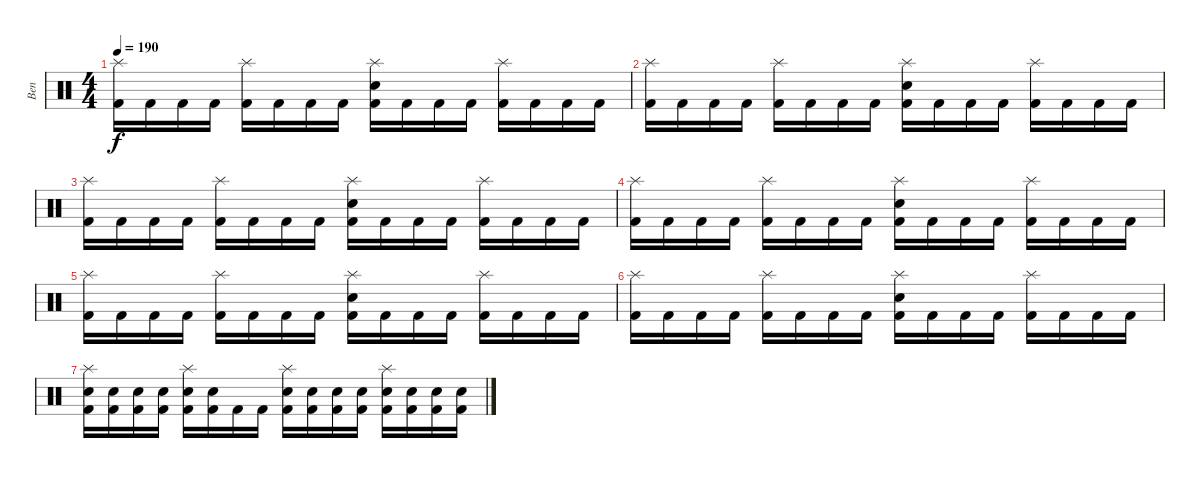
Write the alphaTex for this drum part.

\track ("Ben" "Ben") {instrument percussion}
\staff {score}
\articulation defaults
\ts (4 4)
\tempo 190
\clef neutral
\ks c
("Splash (hit)" "Kick (hit) 2").16{dy f} "Kick (hit) 2".16 "Kick (hit) 2".16 "Kick (hit) 2".16 ("Splash (hit)" "Kick (hit) 2").16 "Kick (hit) 2".16 "Kick (hit) 2".16 "Kick (hit) 2".16 ("Snare (hit) 2" "Splash (hit)" "Kick (hit) 2").16 "Kick (hit) 2".16 "Kick (hit) 2".16 "Kick (hit) 2".16 ("Splash (hit)" "Kick (hit) 2").16 "Kick (hit) 2".16 "Kick (hit) 2".16 "Kick (hit) 2".16 |
("Splash (hit)" "Kick (hit) 2").16 "Kick (hit) 2".16 "Kick (hit) 2".16 "Kick (hit) 2".16 ("Splash (hit)" "Kick (hit) 2").16 "Kick (hit) 2".16 "Kick (hit) 2".16 "Kick (hit) 2".16 ("Snare (hit) 2" "Splash (hit)" "Kick (hit) 2").16 "Kick (hit) 2".16 "Kick (hit) 2".16 "Kick (hit) 2".16 ("Splash (hit)" "Kick (hit) 2").16 "Kick (hit) 2".16 "Kick (hit) 2".16 "Kick (hit) 2".16 |
("Splash (hit)" "Kick (hit) 2").16 "Kick (hit) 2".16 "Kick (hit) 2".16 "Kick (hit) 2".16 ("Splash (hit)" "Kick (hit) 2").16 "Kick (hit) 2".16 "Kick (hit) 2".16 "Kick (hit) 2".16 ("Snare (hit) 2" "Splash (hit)" "Kick (hit) 2").16 "Kick (hit) 2".16 "Kick (hit) 2".16 "Kick (hit) 2".16 ("Splash (hit)" "Kick (hit) 2").16 "Kick (hit) 2".16 "Kick (hit) 2".16 "Kick (hit) 2".16 |
("Splash (hit)" "Kick (hit) 2").16 "Kick (hit) 2".16 "Kick (hit) 2".16 "Kick (hit) 2".16 ("Splash (hit)" "Kick (hit) 2").16 "Kick (hit) 2".16 "Kick (hit) 2".16 "Kick (hit) 2".16 ("Snare (hit) 2" "Splash (hit)" "Kick (hit) 2").16 "Kick (hit) 2".16 "Kick (hit) 2".16 "Kick (hit) 2".16 ("Splash (hit)" "Kick (hit) 2").16 "Kick (hit) 2".16 "Kick (hit) 2".16 "Kick (hit) 2".16 |
("Splash (hit)" "Kick (hit) 2").16 "Kick (hit) 2".16 "Kick (hit) 2".16 "Kick (hit) 2".16 ("Splash (hit)" "Kick (hit) 2").16 "Kick (hit) 2".16 "Kick (hit) 2".16 "Kick (hit) 2".16 ("Snare (hit) 2" "Splash (hit)" "Kick (hit) 2").16 "Kick (hit) 2".16 "Kick (hit) 2".16 "Kick (hit) 2".16 ("Splash (hit)" "Kick (hit) 2").16 "Kick (hit) 2".16 "Kick (hit) 2".16 "Kick (hit) 2".16 |
("Splash (hit)" "Kick (hit) 2").16 "Kick (hit) 2".16 "Kick (hit) 2".16 "Kick (hit) 2".16 ("Splash (hit)" "Kick (hit) 2").16 "Kick (hit) 2".16 "Kick (hit) 2".16 "Kick (hit) 2".16 ("Snare (hit) 2" "Splash (hit)" "Kick (hit) 2").16 "Kick (hit) 2".16 "Kick (hit) 2".16 "Kick (hit) 2".16 ("Splash (hit)" "Kick (hit) 2").16 "Kick (hit) 2".16 "Kick (hit) 2".16 "Kick (hit) 2".16 |
("Snare (hit) 2" "Splash (hit)" "Kick (hit) 2").16 ("Snare (hit) 2" "Kick (hit) 2").16 ("Snare (hit) 2" "Kick (hit) 2").16 ("Snare (hit) 2" "Kick (hit) 2").16 ("Snare (hit) 2" "Splash (hit)" "Kick (hit) 2").16 ("Snare (hit) 2" "Kick (hit) 2").16 "Kick (hit) 2".16 "Kick (hit) 2".16 ("Snare (hit) 2" "Splash (hit)" "Kick (hit) 2").16 ("Snare (hit) 2" "Kick (hit) 2").16 ("Snare (hit) 2" "Kick (hit) 2").16 ("Snare (hit) 2" "Kick (hit) 2").16 ("Snare (hit) 2" "Splash (hit)" "Kick (hit) 2").16 ("Snare (hit) 2" "Kick (hit) 2").16 ("Snare (hit) 2" "Kick (hit) 2").16 ("Snare (hit) 2" "Kick (hit) 2").16
